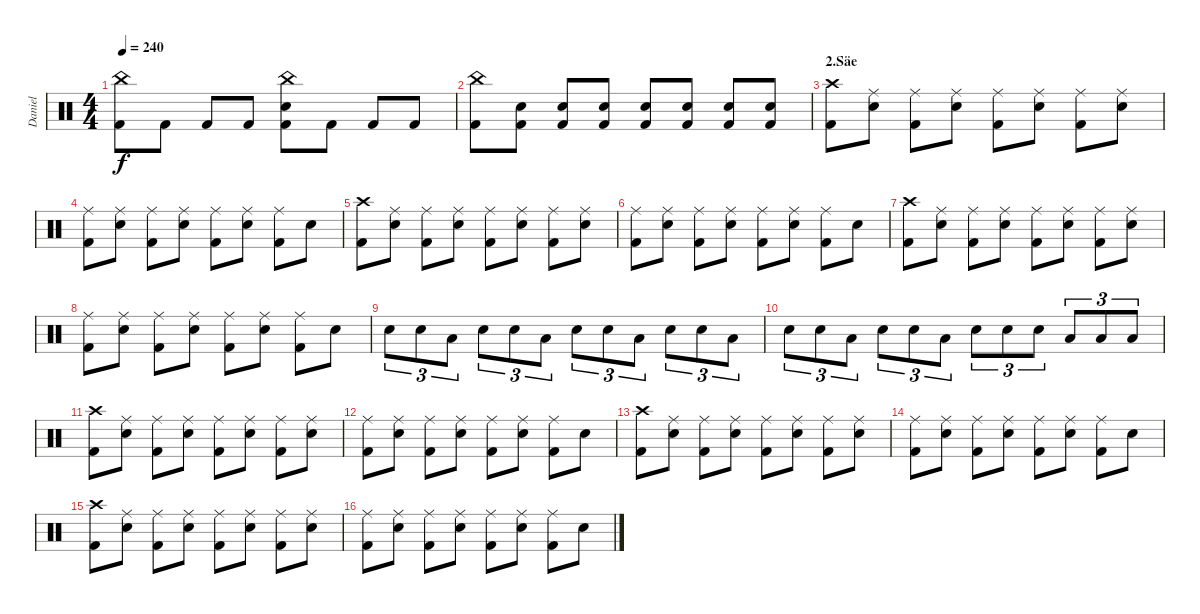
\track ("Daniel" "Daniel") {instrument percussion}
\staff {score}
\articulation defaults
\ts (4 4)
\tempo 240
\clef neutral
\ks c
("China (hit)" "Kick (hit) 2").8{dy f} "Kick (hit) 2".8 "Kick (hit) 2".8 "Kick (hit) 2".8 ("China (hit)" "Electric Snare (hit)" "Kick (hit) 2").8 "Kick (hit) 2".8 "Kick (hit) 2".8 "Kick (hit) 2".8 |
("China (hit)" "Kick (hit) 2").8 ("Electric Snare (hit)" "Kick (hit) 2").8 ("Electric Snare (hit)" "Kick (hit) 2").8 ("Electric Snare (hit)" "Kick (hit) 2").8 ("Electric Snare (hit)" "Kick (hit) 2").8 ("Electric Snare (hit)" "Kick (hit) 2").8 ("Electric Snare (hit)" "Kick (hit) 2").8 ("Electric Snare (hit)" "Kick (hit) 2").8 |
\section ("" "2.Säe")
("Crash high (hit)" "Kick (hit) 2").8 ("Ride (middle)" "Electric Snare (hit)").8 ("Ride (middle)" "Kick (hit) 2").8 ("Ride (middle)" "Electric Snare (hit)").8 ("Ride (middle)" "Kick (hit) 2").8 ("Ride (middle)" "Electric Snare (hit)").8 ("Ride (middle)" "Kick (hit) 2").8 ("Ride (middle)" "Electric Snare (hit)").8 |
("Ride (middle)" "Kick (hit) 2").8 ("Ride (middle)" "Electric Snare (hit)").8 ("Ride (middle)" "Kick (hit) 2").8 ("Ride (middle)" "Electric Snare (hit)").8 ("Ride (middle)" "Kick (hit) 2").8 ("Ride (middle)" "Electric Snare (hit)").8 ("Ride (middle)" "Kick (hit) 2").8 "Electric Snare (hit)".8 |
("Crash high (hit)" "Kick (hit) 2").8 ("Ride (middle)" "Electric Snare (hit)").8 ("Ride (middle)" "Kick (hit) 2").8 ("Ride (middle)" "Electric Snare (hit)").8 ("Ride (middle)" "Kick (hit) 2").8 ("Ride (middle)" "Electric Snare (hit)").8 ("Ride (middle)" "Kick (hit) 2").8 ("Ride (middle)" "Electric Snare (hit)").8 |
("Ride (middle)" "Kick (hit) 2").8 ("Ride (middle)" "Electric Snare (hit)").8 ("Ride (middle)" "Kick (hit) 2").8 ("Ride (middle)" "Electric Snare (hit)").8 ("Ride (middle)" "Kick (hit) 2").8 ("Ride (middle)" "Electric Snare (hit)").8 ("Ride (middle)" "Kick (hit) 2").8 "Electric Snare (hit)".8 |
("Crash high (hit)" "Kick (hit) 2").8 ("Ride (middle)" "Electric Snare (hit)").8 ("Ride (middle)" "Kick (hit) 2").8 ("Ride (middle)" "Electric Snare (hit)").8 ("Ride (middle)" "Kick (hit) 2").8 ("Ride (middle)" "Electric Snare (hit)").8 ("Ride (middle)" "Kick (hit) 2").8 ("Ride (middle)" "Electric Snare (hit)").8 |
("Ride (middle)" "Kick (hit) 2").8 ("Ride (middle)" "Electric Snare (hit)").8 ("Ride (middle)" "Kick (hit) 2").8 ("Ride (middle)" "Electric Snare (hit)").8 ("Ride (middle)" "Kick (hit) 2").8 ("Ride (middle)" "Electric Snare (hit)").8 ("Ride (middle)" "Kick (hit) 2").8 "Electric Snare (hit)".8 |
"Electric Snare (hit)".8{tu (3 2)} "Electric Snare (hit)".8{tu (3 2)} "Low Tom (hit)".8{tu (3 2)} "Electric Snare (hit)".8{tu (3 2)} "Electric Snare (hit)".8{tu (3 2)} "Low Tom (hit)".8{tu (3 2)} "Electric Snare (hit)".8{tu (3 2)} "Electric Snare (hit)".8{tu (3 2)} "Low Tom (hit)".8{tu (3 2)} "Electric Snare (hit)".8{tu (3 2)} "Electric Snare (hit)".8{tu (3 2)} "Low Tom (hit)".8{tu (3 2)} |
"Electric Snare (hit)".8{tu (3 2)} "Electric Snare (hit)".8{tu (3 2)} "Low Tom (hit)".8{tu (3 2)} "Electric Snare (hit)".8{tu (3 2)} "Electric Snare (hit)".8{tu (3 2)} "Low Tom (hit)".8{tu (3 2)} "Electric Snare (hit)".8{tu (3 2)} "Electric Snare (hit)".8{tu (3 2)} "Electric Snare (hit)".8{tu (3 2)} "Low Tom (hit)".8{tu (3 2)} "Low Tom (hit)".8{tu (3 2)} "Low Tom (hit)".8{tu (3 2)} |
("Crash high (hit)" "Kick (hit) 2").8 ("Ride (middle)" "Electric Snare (hit)").8 ("Ride (middle)" "Kick (hit) 2").8 ("Ride (middle)" "Electric Snare (hit)").8 ("Ride (middle)" "Kick (hit) 2").8 ("Ride (middle)" "Electric Snare (hit)").8 ("Ride (middle)" "Kick (hit) 2").8 ("Ride (middle)" "Electric Snare (hit)").8 |
("Ride (middle)" "Kick (hit) 2").8 ("Ride (middle)" "Electric Snare (hit)").8 ("Ride (middle)" "Kick (hit) 2").8 ("Ride (middle)" "Electric Snare (hit)").8 ("Ride (middle)" "Kick (hit) 2").8 ("Ride (middle)" "Electric Snare (hit)").8 ("Ride (middle)" "Kick (hit) 2").8 "Electric Snare (hit)".8 |
("Crash high (hit)" "Kick (hit) 2").8 ("Ride (middle)" "Electric Snare (hit)").8 ("Ride (middle)" "Kick (hit) 2").8 ("Ride (middle)" "Electric Snare (hit)").8 ("Ride (middle)" "Kick (hit) 2").8 ("Ride (middle)" "Electric Snare (hit)").8 ("Ride (middle)" "Kick (hit) 2").8 ("Ride (middle)" "Electric Snare (hit)").8 |
("Ride (middle)" "Kick (hit) 2").8 ("Ride (middle)" "Electric Snare (hit)").8 ("Ride (middle)" "Kick (hit) 2").8 ("Ride (middle)" "Electric Snare (hit)").8 ("Ride (middle)" "Kick (hit) 2").8 ("Ride (middle)" "Electric Snare (hit)").8 ("Ride (middle)" "Kick (hit) 2").8 "Electric Snare (hit)".8 |
("Crash high (hit)" "Kick (hit) 2").8 ("Ride (middle)" "Electric Snare (hit)").8 ("Ride (middle)" "Kick (hit) 2").8 ("Ride (middle)" "Electric Snare (hit)").8 ("Ride (middle)" "Kick (hit) 2").8 ("Ride (middle)" "Electric Snare (hit)").8 ("Ride (middle)" "Kick (hit) 2").8 ("Ride (middle)" "Electric Snare (hit)").8 |
("Ride (middle)" "Kick (hit) 2").8 ("Ride (middle)" "Electric Snare (hit)").8 ("Ride (middle)" "Kick (hit) 2").8 ("Ride (middle)" "Electric Snare (hit)").8 ("Ride (middle)" "Kick (hit) 2").8 ("Ride (middle)" "Electric Snare (hit)").8 ("Ride (middle)" "Kick (hit) 2").8 "Electric Snare (hit)".8
